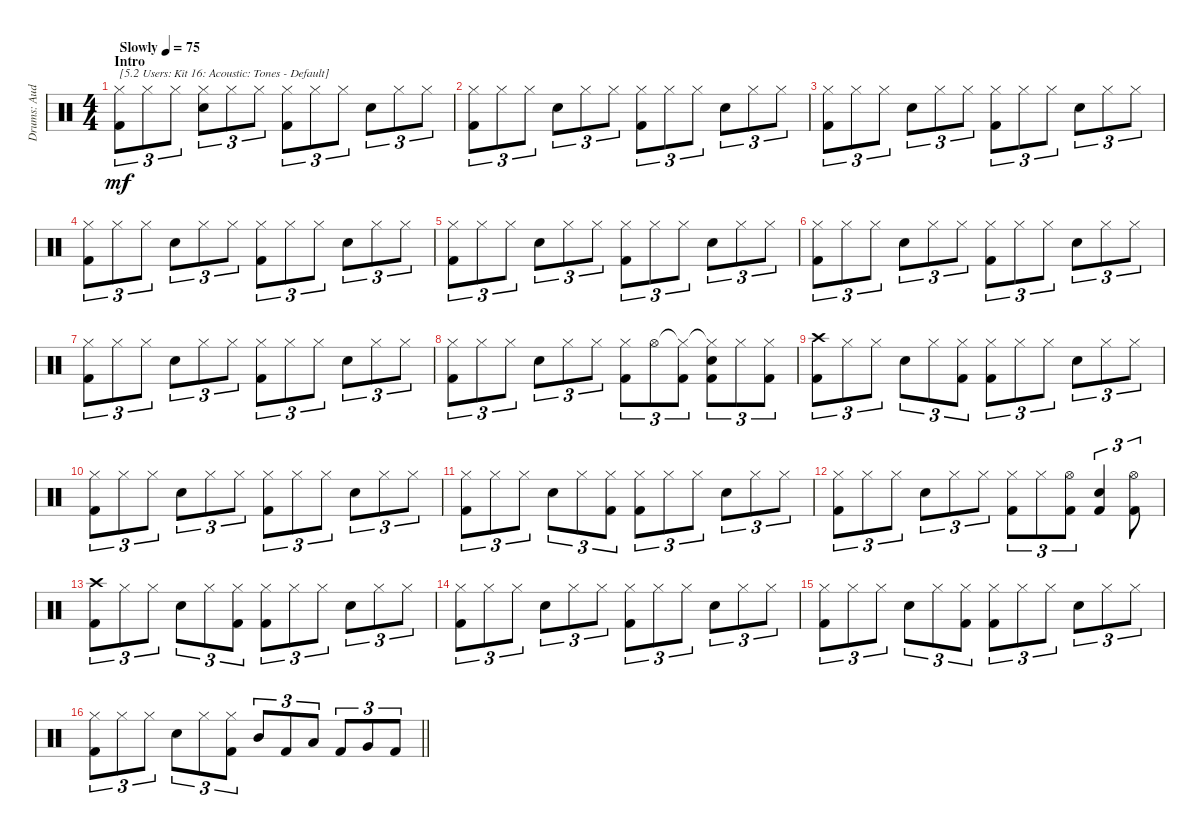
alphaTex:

\track ("Drums: Audie" "Drums: Aud") {instrument percussion}
\staff {score}
\articulation defaults
\ts (4 4)
\section ("" "Intro")
\tempo (75 "Slowly")
\clef neutral
\ks c
("Hi-Hat (closed)" "Kick (hit) 2").8{tu (3 2) txt "[5.2 Users: Kit 16: Acoustic: Tones - Default]" dy mf} "Hi-Hat (closed)".8{tu (3 2)} "Hi-Hat (closed)".8{tu (3 2)} ("Hi-Hat (closed)" "Snare (hit) 2").8{tu (3 2)} "Hi-Hat (closed)".8{tu (3 2)} "Hi-Hat (closed)".8{tu (3 2)} ("Hi-Hat (closed)" "Kick (hit) 2").8{tu (3 2)} "Hi-Hat (closed)".8{tu (3 2)} "Hi-Hat (closed)".8{tu (3 2)} "Snare (hit) 2".8{tu (3 2)} "Hi-Hat (closed)".8{tu (3 2)} "Hi-Hat (closed)".8{tu (3 2)} |
("Hi-Hat (closed)" "Kick (hit) 2").8{tu (3 2)} "Hi-Hat (closed)".8{tu (3 2)} "Hi-Hat (closed)".8{tu (3 2)} "Electric Snare (hit)".8{tu (3 2)} "Hi-Hat (closed)".8{tu (3 2)} "Hi-Hat (closed)".8{tu (3 2)} ("Hi-Hat (closed)" "Kick (hit) 2").8{tu (3 2)} "Hi-Hat (closed)".8{tu (3 2)} "Hi-Hat (closed)".8{tu (3 2)} "Electric Snare (hit)".8{tu (3 2)} "Hi-Hat (closed)".8{tu (3 2)} "Hi-Hat (closed)".8{tu (3 2)} |
("Hi-Hat (closed)" "Kick (hit) 2").8{tu (3 2)} "Hi-Hat (closed)".8{tu (3 2)} "Hi-Hat (closed)".8{tu (3 2)} "Electric Snare (hit)".8{tu (3 2)} "Hi-Hat (closed)".8{tu (3 2)} "Hi-Hat (closed)".8{tu (3 2)} ("Hi-Hat (closed)" "Kick (hit) 2").8{tu (3 2)} "Hi-Hat (closed)".8{tu (3 2)} "Hi-Hat (closed)".8{tu (3 2)} "Electric Snare (hit)".8{tu (3 2)} "Hi-Hat (closed)".8{tu (3 2)} "Hi-Hat (closed)".8{tu (3 2)} |
("Hi-Hat (closed)" "Kick (hit) 2").8{tu (3 2)} "Hi-Hat (closed)".8{tu (3 2)} "Hi-Hat (closed)".8{tu (3 2)} "Electric Snare (hit)".8{tu (3 2)} "Hi-Hat (closed)".8{tu (3 2)} "Hi-Hat (closed)".8{tu (3 2)} ("Hi-Hat (closed)" "Kick (hit) 2").8{tu (3 2)} "Hi-Hat (closed)".8{tu (3 2)} "Hi-Hat (closed)".8{tu (3 2)} "Electric Snare (hit)".8{tu (3 2)} "Hi-Hat (closed)".8{tu (3 2)} "Hi-Hat (closed)".8{tu (3 2)} |
("Hi-Hat (closed)" "Kick (hit) 2").8{tu (3 2)} "Hi-Hat (closed)".8{tu (3 2)} "Hi-Hat (closed)".8{tu (3 2)} "Electric Snare (hit)".8{tu (3 2)} "Hi-Hat (closed)".8{tu (3 2)} "Hi-Hat (closed)".8{tu (3 2)} ("Hi-Hat (closed)" "Kick (hit) 2").8{tu (3 2)} "Hi-Hat (closed)".8{tu (3 2)} "Hi-Hat (closed)".8{tu (3 2)} "Electric Snare (hit)".8{tu (3 2)} "Hi-Hat (closed)".8{tu (3 2)} "Hi-Hat (closed)".8{tu (3 2)} |
("Hi-Hat (closed)" "Kick (hit) 2").8{tu (3 2)} "Hi-Hat (closed)".8{tu (3 2)} "Hi-Hat (closed)".8{tu (3 2)} "Electric Snare (hit)".8{tu (3 2)} "Hi-Hat (closed)".8{tu (3 2)} "Hi-Hat (closed)".8{tu (3 2)} ("Hi-Hat (closed)" "Kick (hit) 2").8{tu (3 2)} "Hi-Hat (closed)".8{tu (3 2)} "Hi-Hat (closed)".8{tu (3 2)} "Electric Snare (hit)".8{tu (3 2)} "Hi-Hat (closed)".8{tu (3 2)} "Hi-Hat (closed)".8{tu (3 2)} |
("Hi-Hat (closed)" "Kick (hit) 2").8{tu (3 2)} "Hi-Hat (closed)".8{tu (3 2)} "Hi-Hat (closed)".8{tu (3 2)} "Electric Snare (hit)".8{tu (3 2)} "Hi-Hat (closed)".8{tu (3 2)} "Hi-Hat (closed)".8{tu (3 2)} ("Hi-Hat (closed)" "Kick (hit) 2").8{tu (3 2)} "Hi-Hat (closed)".8{tu (3 2)} "Hi-Hat (closed)".8{tu (3 2)} "Electric Snare (hit)".8{tu (3 2)} "Hi-Hat (closed)".8{tu (3 2)} "Hi-Hat (closed)".8{tu (3 2)} |
("Hi-Hat (closed)" "Kick (hit) 2").8{tu (3 2)} "Hi-Hat (closed)".8{tu (3 2)} "Hi-Hat (closed)".8{tu (3 2)} "Electric Snare (hit)".8{tu (3 2)} "Hi-Hat (closed)".8{tu (3 2)} "Hi-Hat (closed)".8{tu (3 2)} ("Hi-Hat (closed)" "Kick (hit) 2").8{tu (3 2)} "Hi-Hat (open)".8{tu (3 2)} ("Hi-Hat (closed)"{t} "Kick (hit) 2").8{tu (3 2)} ("Hi-Hat (closed)"{t} "Electric Snare (hit)" "Kick (hit) 2").8{tu (3 2)} "Hi-Hat (closed)".8{tu (3 2)} ("Hi-Hat (closed)" "Kick (hit) 2").8{tu (3 2)} |
("Crash high (hit)" "Kick (hit) 2").8{tu (3 2)} "Hi-Hat (closed)".8{tu (3 2)} "Hi-Hat (closed)".8{tu (3 2)} "Electric Snare (hit)".8{tu (3 2)} "Hi-Hat (closed)".8{tu (3 2)} ("Hi-Hat (closed)" "Kick (hit) 2").8{tu (3 2)} ("Hi-Hat (closed)" "Kick (hit) 2").8{tu (3 2)} "Hi-Hat (closed)".8{tu (3 2)} "Hi-Hat (closed)".8{tu (3 2)} "Electric Snare (hit)".8{tu (3 2)} "Hi-Hat (closed)".8{tu (3 2)} "Hi-Hat (closed)".8{tu (3 2)} |
("Hi-Hat (closed)" "Kick (hit) 2").8{tu (3 2)} "Hi-Hat (closed)".8{tu (3 2)} "Hi-Hat (closed)".8{tu (3 2)} "Electric Snare (hit)".8{tu (3 2)} "Hi-Hat (closed)".8{tu (3 2)} "Hi-Hat (closed)".8{tu (3 2)} ("Hi-Hat (closed)" "Kick (hit) 2").8{tu (3 2)} "Hi-Hat (closed)".8{tu (3 2)} "Hi-Hat (closed)".8{tu (3 2)} "Electric Snare (hit)".8{tu (3 2)} "Hi-Hat (closed)".8{tu (3 2)} "Hi-Hat (closed)".8{tu (3 2)} |
("Hi-Hat (closed)" "Kick (hit) 2").8{tu (3 2)} "Hi-Hat (closed)".8{tu (3 2)} "Hi-Hat (closed)".8{tu (3 2)} "Electric Snare (hit)".8{tu (3 2)} "Hi-Hat (closed)".8{tu (3 2)} ("Hi-Hat (closed)" "Kick (hit) 2").8{tu (3 2)} ("Hi-Hat (closed)" "Kick (hit) 2").8{tu (3 2)} "Hi-Hat (closed)".8{tu (3 2)} "Hi-Hat (closed)".8{tu (3 2)} "Electric Snare (hit)".8{tu (3 2)} "Hi-Hat (closed)".8{tu (3 2)} "Hi-Hat (closed)".8{tu (3 2)} |
("Hi-Hat (closed)" "Kick (hit) 2").8{tu (3 2)} "Hi-Hat (closed)".8{tu (3 2)} "Hi-Hat (closed)".8{tu (3 2)} "Electric Snare (hit)".8{tu (3 2)} "Hi-Hat (closed)".8{tu (3 2)} "Hi-Hat (closed)".8{tu (3 2)} ("Hi-Hat (closed)" "Kick (hit) 2").8{tu (3 2)} "Hi-Hat (closed)".8{tu (3 2)} ("Hi-Hat (open)" "Kick (hit) 2").8{tu (3 2)} ("Electric Snare (hit)" "Kick (hit) 2").4{tu (3 2)} ("Hi-Hat (open)" "Kick (hit) 2").8{tu (3 2)} |
("Crash high (hit)" "Kick (hit) 2").8{tu (3 2)} "Hi-Hat (closed)".8{tu (3 2)} "Hi-Hat (closed)".8{tu (3 2)} "Electric Snare (hit)".8{tu (3 2)} "Hi-Hat (closed)".8{tu (3 2)} ("Hi-Hat (closed)" "Kick (hit) 2").8{tu (3 2)} ("Hi-Hat (closed)" "Kick (hit) 2").8{tu (3 2)} "Hi-Hat (closed)".8{tu (3 2)} "Hi-Hat (closed)".8{tu (3 2)} "Electric Snare (hit)".8{tu (3 2)} "Hi-Hat (closed)".8{tu (3 2)} "Hi-Hat (closed)".8{tu (3 2)} |
("Hi-Hat (closed)" "Kick (hit) 2").8{tu (3 2)} "Hi-Hat (closed)".8{tu (3 2)} "Hi-Hat (closed)".8{tu (3 2)} "Electric Snare (hit)".8{tu (3 2)} "Hi-Hat (closed)".8{tu (3 2)} "Hi-Hat (closed)".8{tu (3 2)} ("Hi-Hat (closed)" "Kick (hit) 2").8{tu (3 2)} "Hi-Hat (closed)".8{tu (3 2)} "Hi-Hat (closed)".8{tu (3 2)} "Electric Snare (hit)".8{tu (3 2)} "Hi-Hat (closed)".8{tu (3 2)} "Hi-Hat (closed)".8{tu (3 2)} |
("Hi-Hat (closed)" "Kick (hit) 2").8{tu (3 2)} "Hi-Hat (closed)".8{tu (3 2)} "Hi-Hat (closed)".8{tu (3 2)} "Electric Snare (hit)".8{tu (3 2)} "Hi-Hat (closed)".8{tu (3 2)} ("Hi-Hat (closed)" "Kick (hit) 2").8{tu (3 2)} ("Hi-Hat (closed)" "Kick (hit) 2").8{tu (3 2)} "Hi-Hat (closed)".8{tu (3 2)} "Hi-Hat (closed)".8{tu (3 2)} "Electric Snare (hit)".8{tu (3 2)} "Hi-Hat (closed)".8{tu (3 2)} "Hi-Hat (closed)".8{tu (3 2)} |
\barLineRight lightlight
("Hi-Hat (closed)" "Kick (hit) 2").8{tu (3 2)} "Hi-Hat (closed)".8{tu (3 2)} "Hi-Hat (closed)".8{tu (3 2)} "Electric Snare (hit)".8{tu (3 2)} "Hi-Hat (closed)".8{tu (3 2)} ("Hi-Hat (closed)" "Kick (hit) 2").8{tu (3 2)} "Mid Tom (hit)".8{tu (3 2)} "Kick (hit) 2".8{tu (3 2)} "Low Tom (hit)".8{tu (3 2)} "Kick (hit) 2".8{tu (3 2)} "Very Low Tom (hit)".8{tu (3 2)} "Kick (hit) 2".8{tu (3 2)}
